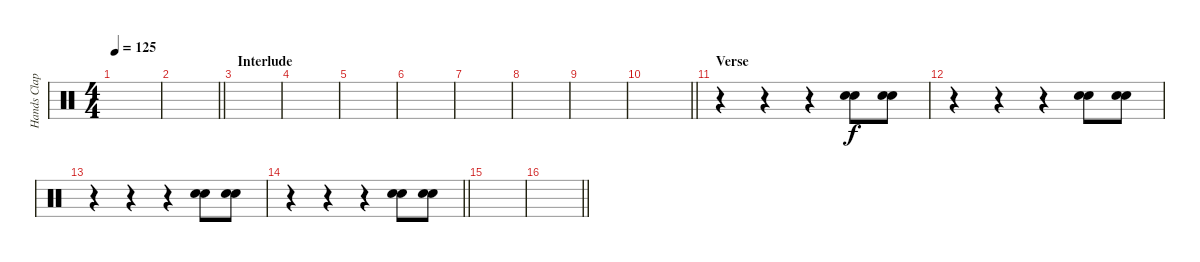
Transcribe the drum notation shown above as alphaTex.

\track ("Hands Clapping" "Hands Clap") {instrument percussion}
\staff {score}
\articulation defaults
\ts (4 4)
\tempo 125
\clef neutral
\ks c
|
\barLineRight lightlight
|
\section ("" "Interlude")
|
|
|
|
|
|
|
\barLineRight lightlight
|
\section ("" "Verse")
r.4 r.4 r.4 ("Hand Clap (hit)" "Hand Clap (hit)").8 ("Hand Clap (hit)" "Hand Clap (hit)").8 |
r.4 r.4 r.4 ("Hand Clap (hit)" "Hand Clap (hit)").8 ("Hand Clap (hit)" "Hand Clap (hit)").8 |
r.4 r.4 r.4 ("Hand Clap (hit)" "Hand Clap (hit)").8 ("Hand Clap (hit)" "Hand Clap (hit)").8 |
\barLineRight lightlight
r.4 r.4 r.4 ("Hand Clap (hit)" "Hand Clap (hit)").8 ("Hand Clap (hit)" "Hand Clap (hit)").8 |
|
\barLineRight lightlight
